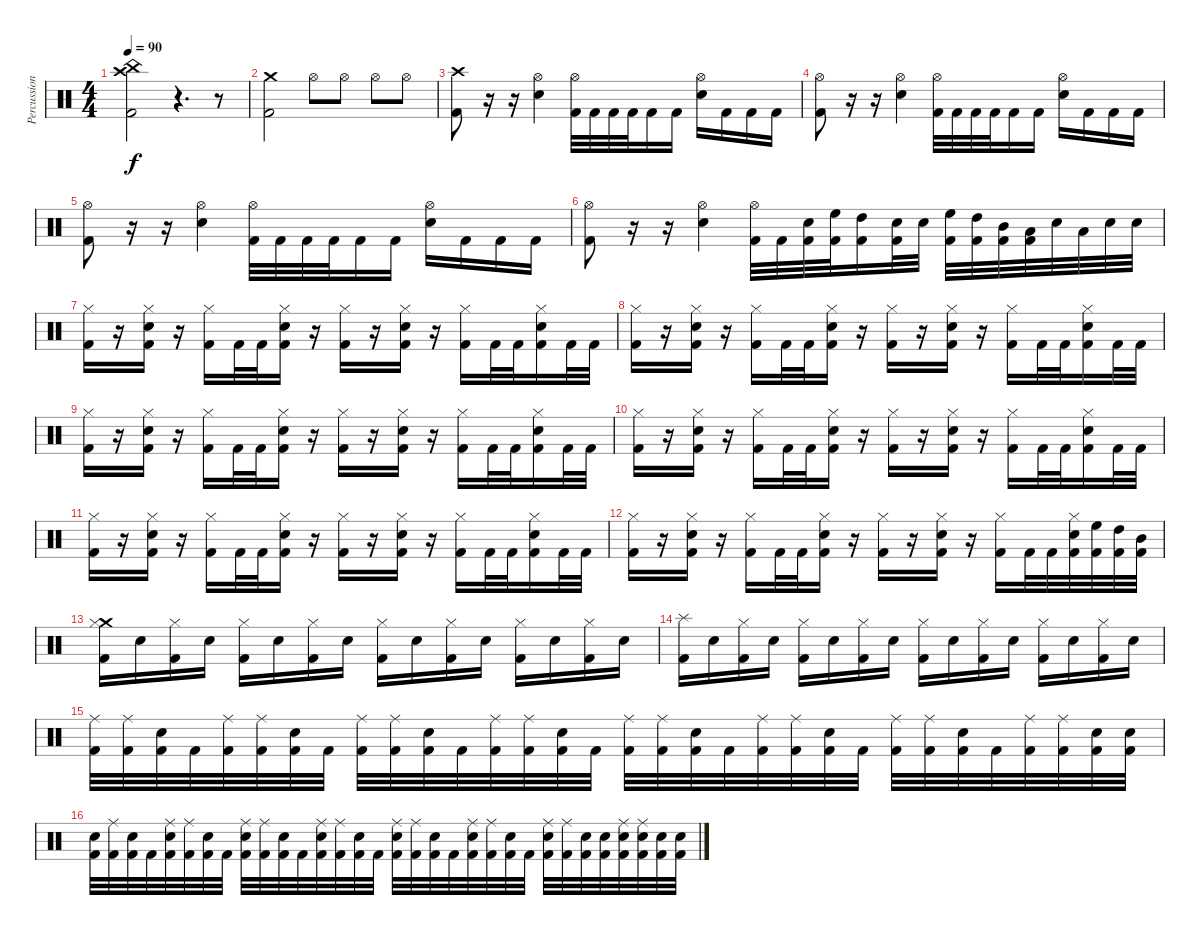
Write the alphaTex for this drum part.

\track ("Percussion" "Percussion") {instrument percussion}
\staff {score}
\articulation defaults
\ts (4 4)
\tempo 90
\clef neutral
\ks c
("Crash high (hit)" "China (hit)" "Kick (hit) 2").2{dy f} r.4{d} r.8 |
("Crash medium (hit)" "Kick (hit) 2").2 "Hi-Hat (open)".8 "Hi-Hat (open)".8 "Hi-Hat (open)".8 "Hi-Hat (open)".8 |
("Crash high (hit)" "Kick (hit) 2").8 r.16 r.16 ("Hi-Hat (open)" "Snare (hit) 2").4 ("Hi-Hat (open)" "Kick (hit) 2").32 "Kick (hit) 2".32 "Kick (hit) 2".32 "Kick (hit) 2".32 "Kick (hit) 2".16 "Kick (hit) 2".16 ("Hi-Hat (open)" "Snare (hit) 2").16 "Kick (hit) 2".16 "Kick (hit) 2".16 "Kick (hit) 2".16 |
("Hi-Hat (open)" "Kick (hit) 2").8 r.16 r.16 ("Hi-Hat (open)" "Snare (hit) 2").4 ("Hi-Hat (open)" "Kick (hit) 2").32 "Kick (hit) 2".32 "Kick (hit) 2".32 "Kick (hit) 2".32 "Kick (hit) 2".16 "Kick (hit) 2".16 ("Hi-Hat (open)" "Snare (hit) 2").16 "Kick (hit) 2".16 "Kick (hit) 2".16 "Kick (hit) 2".16 |
("Hi-Hat (open)" "Kick (hit) 2").8 r.16 r.16 ("Hi-Hat (open)" "Snare (hit) 2").4 ("Hi-Hat (open)" "Kick (hit) 2").32 "Kick (hit) 2".32 "Kick (hit) 2".32 "Kick (hit) 2".32 "Kick (hit) 2".16 "Kick (hit) 2".16 ("Hi-Hat (open)" "Snare (hit) 2").16 "Kick (hit) 2".16 "Kick (hit) 2".16 "Kick (hit) 2".16 |
("Hi-Hat (open)" "Kick (hit) 2").8 r.16 r.16 ("Hi-Hat (open)" "Snare (hit) 2").4 ("Hi-Hat (open)" "Kick (hit) 2").32 "Kick (hit) 2".32 ("Snare (hit) 2" "Kick (hit) 2").32 ("High Floor Tom (hit)" "Kick (hit) 2").32 ("High Tom (hit)" "Kick (hit) 2").16 ("Snare (hit) 2" "Kick (hit) 2").32 "Snare (hit) 2".32 ("High Floor Tom (hit)" "Kick (hit) 2").32 ("High Tom (hit)" "Kick (hit) 2").32 ("Mid Tom (hit)" "Kick (hit) 2").32 ("Low Tom (hit)" "Kick (hit) 2").32 "Snare (hit) 2".32 "Low Tom (hit)".32 "Snare (hit) 2".32 "Snare (hit) 2".32 |
("Hi-Hat (closed)" "Kick (hit) 2").16 r.16 ("Snare (hit) 2" "Hi-Hat (closed)" "Kick (hit) 2").16 r.16 ("Hi-Hat (closed)" "Kick (hit) 2").16 "Kick (hit) 2".32 "Kick (hit) 2".32 ("Snare (hit) 2" "Hi-Hat (closed)" "Kick (hit) 2").16 r.16 ("Hi-Hat (closed)" "Kick (hit) 2").16 r.16 ("Snare (hit) 2" "Hi-Hat (closed)" "Kick (hit) 2").16 r.16 ("Hi-Hat (closed)" "Kick (hit) 2").16 "Kick (hit) 2".32 "Kick (hit) 2".32 ("Snare (hit) 2" "Hi-Hat (closed)" "Kick (hit) 2").16 "Kick (hit) 2".32 "Kick (hit) 2".32 |
("Hi-Hat (closed)" "Kick (hit) 2").16 r.16 ("Snare (hit) 2" "Hi-Hat (closed)" "Kick (hit) 2").16 r.16 ("Hi-Hat (closed)" "Kick (hit) 2").16 "Kick (hit) 2".32 "Kick (hit) 2".32 ("Snare (hit) 2" "Hi-Hat (closed)" "Kick (hit) 2").16 r.16 ("Hi-Hat (closed)" "Kick (hit) 2").16 r.16 ("Snare (hit) 2" "Hi-Hat (closed)" "Kick (hit) 2").16 r.16 ("Hi-Hat (closed)" "Kick (hit) 2").16 "Kick (hit) 2".32 "Kick (hit) 2".32 ("Snare (hit) 2" "Hi-Hat (closed)" "Kick (hit) 2").16 "Kick (hit) 2".32 "Kick (hit) 2".32 |
("Hi-Hat (closed)" "Kick (hit) 2").16 r.16 ("Snare (hit) 2" "Hi-Hat (closed)" "Kick (hit) 2").16 r.16 ("Hi-Hat (closed)" "Kick (hit) 2").16 "Kick (hit) 2".32 "Kick (hit) 2".32 ("Snare (hit) 2" "Hi-Hat (closed)" "Kick (hit) 2").16 r.16 ("Hi-Hat (closed)" "Kick (hit) 2").16 r.16 ("Snare (hit) 2" "Hi-Hat (closed)" "Kick (hit) 2").16 r.16 ("Hi-Hat (closed)" "Kick (hit) 2").16 "Kick (hit) 2".32 "Kick (hit) 2".32 ("Snare (hit) 2" "Hi-Hat (closed)" "Kick (hit) 2").16 "Kick (hit) 2".32 "Kick (hit) 2".32 |
("Hi-Hat (closed)" "Kick (hit) 2").16 r.16 ("Snare (hit) 2" "Hi-Hat (closed)" "Kick (hit) 2").16 r.16 ("Hi-Hat (closed)" "Kick (hit) 2").16 "Kick (hit) 2".32 "Kick (hit) 2".32 ("Snare (hit) 2" "Hi-Hat (closed)" "Kick (hit) 2").16 r.16 ("Hi-Hat (closed)" "Kick (hit) 2").16 r.16 ("Snare (hit) 2" "Hi-Hat (closed)" "Kick (hit) 2").16 r.16 ("Hi-Hat (closed)" "Kick (hit) 2").16 "Kick (hit) 2".32 "Kick (hit) 2".32 ("Snare (hit) 2" "Hi-Hat (closed)" "Kick (hit) 2").16 "Kick (hit) 2".32 "Kick (hit) 2".32 |
("Hi-Hat (closed)" "Kick (hit) 2").16 r.16 ("Snare (hit) 2" "Hi-Hat (closed)" "Kick (hit) 2").16 r.16 ("Hi-Hat (closed)" "Kick (hit) 2").16 "Kick (hit) 2".32 "Kick (hit) 2".32 ("Snare (hit) 2" "Hi-Hat (closed)" "Kick (hit) 2").16 r.16 ("Hi-Hat (closed)" "Kick (hit) 2").16 r.16 ("Snare (hit) 2" "Hi-Hat (closed)" "Kick (hit) 2").16 r.16 ("Hi-Hat (closed)" "Kick (hit) 2").16 "Kick (hit) 2".32 "Kick (hit) 2".32 ("Snare (hit) 2" "Hi-Hat (closed)" "Kick (hit) 2").16 "Kick (hit) 2".32 "Kick (hit) 2".32 |
("Hi-Hat (closed)" "Kick (hit) 2").16 r.16 ("Snare (hit) 2" "Hi-Hat (closed)" "Kick (hit) 2").16 r.16 ("Hi-Hat (closed)" "Kick (hit) 2").16 "Kick (hit) 2".32 "Kick (hit) 2".32 ("Snare (hit) 2" "Hi-Hat (closed)" "Kick (hit) 2").16 r.16 ("Hi-Hat (closed)" "Kick (hit) 2").16 r.16 ("Snare (hit) 2" "Hi-Hat (closed)" "Kick (hit) 2").16 r.16 ("Hi-Hat (closed)" "Kick (hit) 2").16 "Kick (hit) 2".32 "Kick (hit) 2".32 ("Snare (hit) 2" "Hi-Hat (closed)" "Kick (hit) 2").32 ("High Floor Tom (hit)" "Kick (hit) 2").32 ("High Tom (hit)" "Kick (hit) 2").32 ("Mid Tom (hit)" "Kick (hit) 2").32 |
("Crash medium (hit)" "Hi-Hat (closed)" "Kick (hit) 2").16 "Snare (hit) 2".16 ("Hi-Hat (closed)" "Kick (hit) 2").16 "Snare (hit) 2".16 ("Hi-Hat (closed)" "Kick (hit) 2").16 "Snare (hit) 2".16 ("Hi-Hat (closed)" "Kick (hit) 2").16 "Snare (hit) 2".16 ("Hi-Hat (closed)" "Kick (hit) 2").16 "Snare (hit) 2".16 ("Hi-Hat (closed)" "Kick (hit) 2").16 "Snare (hit) 2".16 ("Hi-Hat (closed)" "Kick (hit) 2").16 "Snare (hit) 2".16 ("Hi-Hat (closed)" "Kick (hit) 2").16 "Snare (hit) 2".16 |
("Splash (hit)" "Kick (hit) 2").16 "Snare (hit) 2".16 ("Hi-Hat (closed)" "Kick (hit) 2").16 "Snare (hit) 2".16 ("Hi-Hat (closed)" "Kick (hit) 2").16 "Snare (hit) 2".16 ("Hi-Hat (closed)" "Kick (hit) 2").16 "Snare (hit) 2".16 ("Hi-Hat (closed)" "Kick (hit) 2").16 "Snare (hit) 2".16 ("Hi-Hat (closed)" "Kick (hit) 2").16 "Snare (hit) 2".16 ("Hi-Hat (closed)" "Kick (hit) 2").16 "Snare (hit) 2".16 ("Hi-Hat (closed)" "Kick (hit) 2").16 "Snare (hit) 2".16 |
("Ride (middle)" "Kick (hit) 2").32 ("Ride (middle)" "Kick (hit) 2").32 ("Snare (hit) 2" "Kick (hit) 2").32 "Kick (hit) 2".32 ("Ride (middle)" "Kick (hit) 2").32 ("Ride (middle)" "Kick (hit) 2").32 ("Snare (hit) 2" "Kick (hit) 2").32 "Kick (hit) 2".32 ("Ride (middle)" "Kick (hit) 2").32 ("Ride (middle)" "Kick (hit) 2").32 ("Snare (hit) 2" "Kick (hit) 2").32 "Kick (hit) 2".32 ("Ride (middle)" "Kick (hit) 2").32 ("Ride (middle)" "Kick (hit) 2").32 ("Snare (hit) 2" "Kick (hit) 2").32 "Kick (hit) 2".32 ("Ride (middle)" "Kick (hit) 2").32 ("Ride (middle)" "Kick (hit) 2").32 ("Snare (hit) 2" "Kick (hit) 2").32 "Kick (hit) 2".32 ("Ride (middle)" "Kick (hit) 2").32 ("Ride (middle)" "Kick (hit) 2").32 ("Snare (hit) 2" "Kick (hit) 2").32 "Kick (hit) 2".32 ("Ride (middle)" "Kick (hit) 2").32 ("Ride (middle)" "Kick (hit) 2").32 ("Snare (hit) 2" "Kick (hit) 2").32 "Kick (hit) 2".32 ("Ride (middle)" "Kick (hit) 2").32 ("Ride (middle)" "Kick (hit) 2").32 ("Snare (hit) 2" "Kick (hit) 2").32 ("Snare (hit) 2" "Kick (hit) 2").32 |
("Snare (hit) 2" "Kick (hit) 2").32 ("Ride (middle)" "Kick (hit) 2").32 ("Snare (hit) 2" "Kick (hit) 2").32 "Kick (hit) 2".32 ("Snare (hit) 2" "Ride (middle)" "Kick (hit) 2").32 ("Ride (middle)" "Kick (hit) 2").32 ("Snare (hit) 2" "Kick (hit) 2").32 "Kick (hit) 2".32 ("Snare (hit) 2" "Ride (middle)" "Kick (hit) 2").32 ("Ride (middle)" "Kick (hit) 2").32 ("Snare (hit) 2" "Kick (hit) 2").32 "Kick (hit) 2".32 ("Snare (hit) 2" "Ride (middle)" "Kick (hit) 2").32 ("Ride (middle)" "Kick (hit) 2").32 ("Snare (hit) 2" "Kick (hit) 2").32 "Kick (hit) 2".32 ("Snare (hit) 2" "Ride (middle)" "Kick (hit) 2").32 ("Ride (middle)" "Kick (hit) 2").32 ("Snare (hit) 2" "Kick (hit) 2").32 "Kick (hit) 2".32 ("Snare (hit) 2" "Ride (middle)" "Kick (hit) 2").32 ("Ride (middle)" "Kick (hit) 2").32 ("Snare (hit) 2" "Kick (hit) 2").32 "Kick (hit) 2".32 ("Snare (hit) 2" "Ride (middle)" "Kick (hit) 2").32 ("Ride (middle)" "Kick (hit) 2").32 ("Snare (hit) 2" "Kick (hit) 2").32 ("Snare (hit) 2" "Kick (hit) 2").32 ("Snare (hit) 2" "Ride (middle)" "Kick (hit) 2").32 ("Snare (hit) 2" "Ride (middle)" "Kick (hit) 2").32 ("Snare (hit) 2" "Kick (hit) 2").32 ("Snare (hit) 2" "Kick (hit) 2").32
